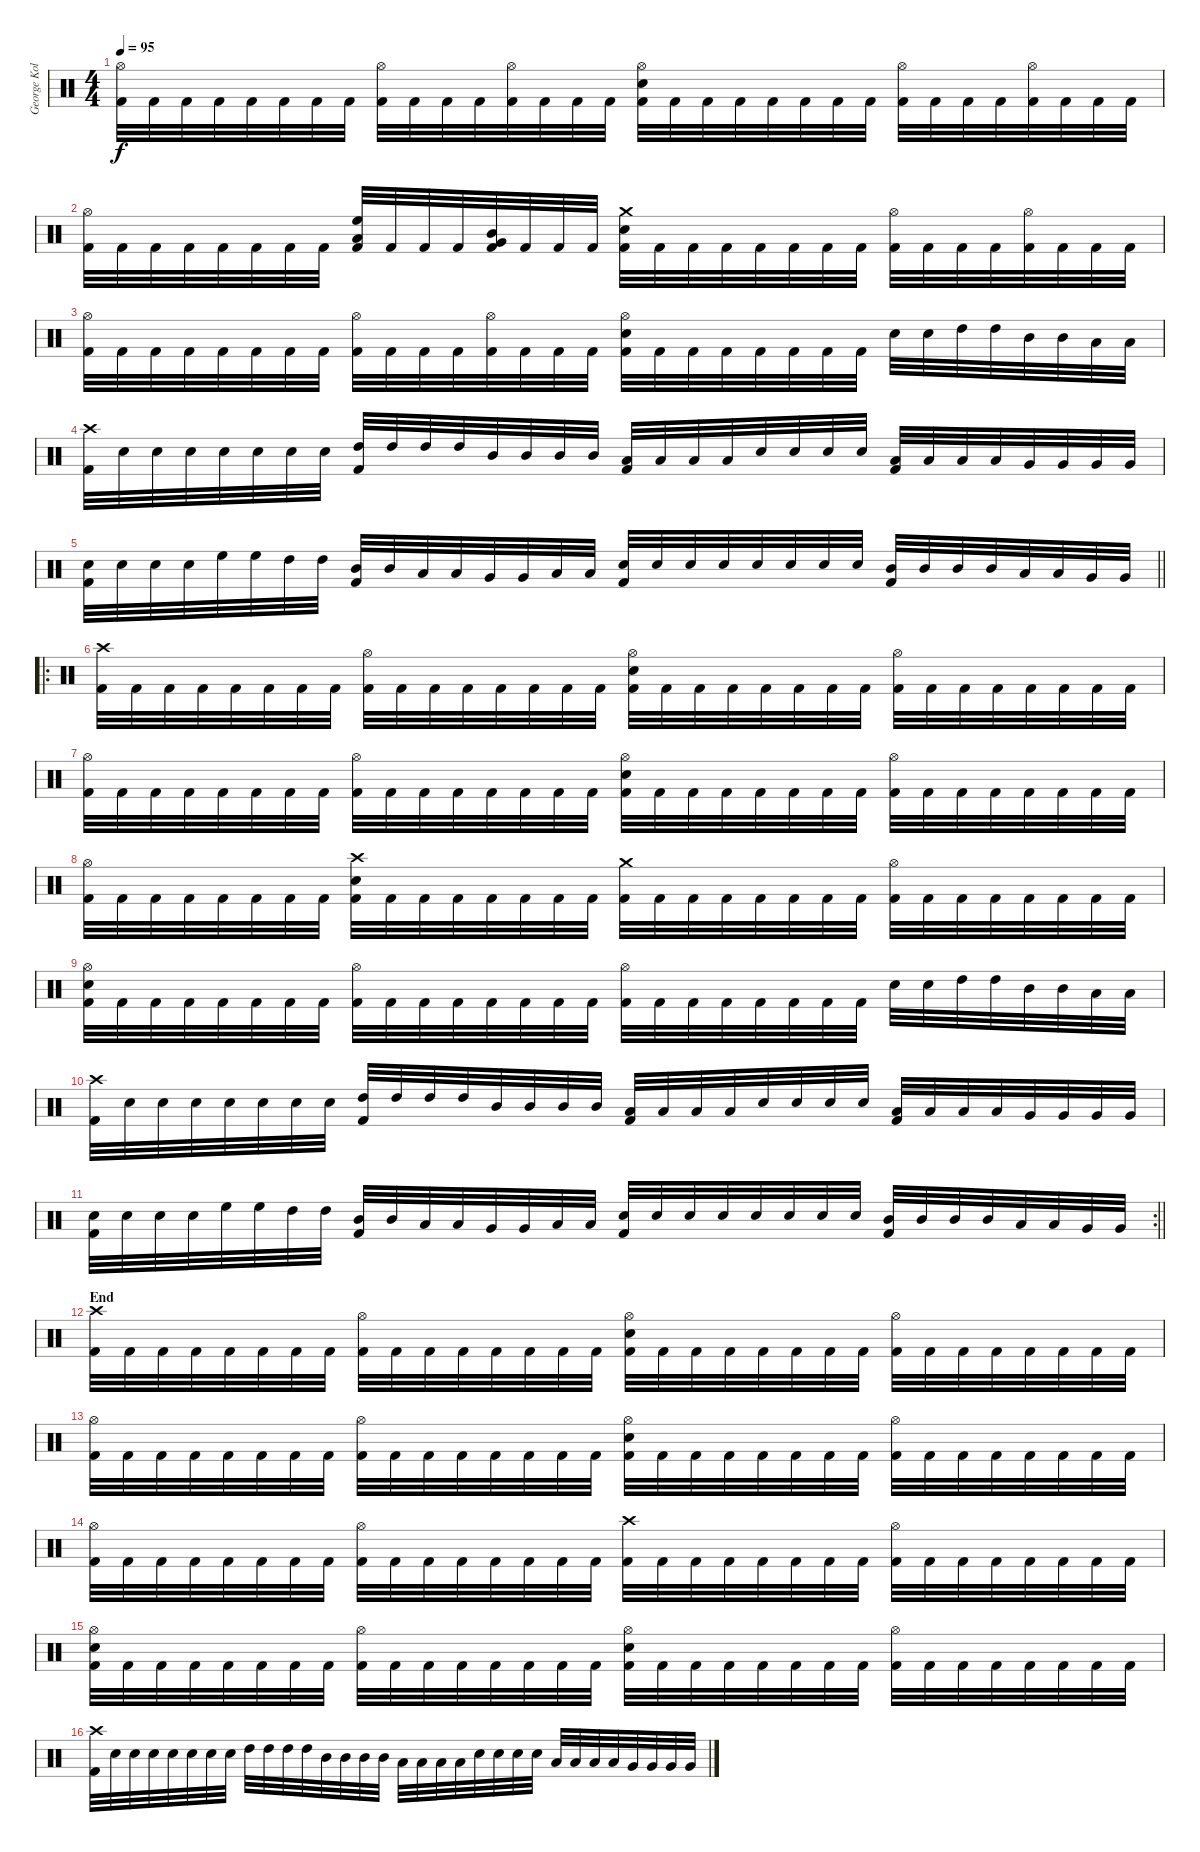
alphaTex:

\track ("George Kollias" "George Kol") {instrument percussion}
\staff {score}
\articulation defaults
\ts (4 4)
\tempo 95
\clef neutral
\ks c
("Hi-Hat (open)" "Kick (hit) 2").32{dy f} "Kick (hit) 2".32 "Kick (hit) 2".32 "Kick (hit) 2".32 "Kick (hit) 2".32 "Kick (hit) 2".32 "Kick (hit) 2".32 "Kick (hit) 2".32 ("Hi-Hat (open)" "Kick (hit) 2").32 "Kick (hit) 2".32 "Kick (hit) 2".32 "Kick (hit) 2".32 ("Hi-Hat (open)" "Kick (hit) 2").32 "Kick (hit) 2".32 "Kick (hit) 2".32 "Kick (hit) 2".32 ("Hi-Hat (open)" "Electric Snare (hit)" "Kick (hit) 2").32 "Kick (hit) 2".32 "Kick (hit) 2".32 "Kick (hit) 2".32 "Kick (hit) 2".32 "Kick (hit) 2".32 "Kick (hit) 2".32 "Kick (hit) 2".32 ("Hi-Hat (open)" "Kick (hit) 2").32 "Kick (hit) 2".32 "Kick (hit) 2".32 "Kick (hit) 2".32 ("Hi-Hat (open)" "Kick (hit) 2").32 "Kick (hit) 2".32 "Kick (hit) 2".32 "Kick (hit) 2".32 |
("Hi-Hat (open)" "Kick (hit) 2").32 "Kick (hit) 2".32 "Kick (hit) 2".32 "Kick (hit) 2".32 "Kick (hit) 2".32 "Kick (hit) 2".32 "Kick (hit) 2".32 "Kick (hit) 2".32 ("High Floor Tom (hit)" "Low Tom (hit)" "Kick (hit) 2").32 "Kick (hit) 2".32 "Kick (hit) 2".32 "Kick (hit) 2".32 ("Mid Tom (hit)" "Very Low Tom (hit)" "Kick (hit) 2").32 "Kick (hit) 2".32 "Kick (hit) 2".32 "Kick (hit) 2".32 ("Crash medium (hit)" "Electric Snare (hit)" "Kick (hit) 2").32 "Kick (hit) 2".32 "Kick (hit) 2".32 "Kick (hit) 2".32 "Kick (hit) 2".32 "Kick (hit) 2".32 "Kick (hit) 2".32 "Kick (hit) 2".32 ("Hi-Hat (open)" "Kick (hit) 2").32 "Kick (hit) 2".32 "Kick (hit) 2".32 "Kick (hit) 2".32 ("Hi-Hat (open)" "Kick (hit) 2").32 "Kick (hit) 2".32 "Kick (hit) 2".32 "Kick (hit) 2".32 |
("Hi-Hat (open)" "Kick (hit) 2").32 "Kick (hit) 2".32 "Kick (hit) 2".32 "Kick (hit) 2".32 "Kick (hit) 2".32 "Kick (hit) 2".32 "Kick (hit) 2".32 "Kick (hit) 2".32 ("Hi-Hat (open)" "Kick (hit) 2").32 "Kick (hit) 2".32 "Kick (hit) 2".32 "Kick (hit) 2".32 ("Hi-Hat (open)" "Kick (hit) 2").32 "Kick (hit) 2".32 "Kick (hit) 2".32 "Kick (hit) 2".32 ("Hi-Hat (open)" "Electric Snare (hit)" "Kick (hit) 2").32 "Kick (hit) 2".32 "Kick (hit) 2".32 "Kick (hit) 2".32 "Kick (hit) 2".32 "Kick (hit) 2".32 "Kick (hit) 2".32 "Kick (hit) 2".32 "Electric Snare (hit)".32 "Electric Snare (hit)".32 "High Tom (hit)".32 "High Tom (hit)".32 "Mid Tom (hit)".32 "Mid Tom (hit)".32 "Low Tom (hit)".32 "Low Tom (hit)".32 |
("Crash high (hit)" "Kick (hit) 2").32 "Electric Snare (hit)".32 "Electric Snare (hit)".32 "Electric Snare (hit)".32 "Electric Snare (hit)".32 "Electric Snare (hit)".32 "Electric Snare (hit)".32 "Electric Snare (hit)".32 ("High Tom (hit)" "Kick (hit) 2").32 "High Tom (hit)".32 "High Tom (hit)".32 "High Tom (hit)".32 "Mid Tom (hit)".32 "Mid Tom (hit)".32 "Mid Tom (hit)".32 "Mid Tom (hit)".32 ("Low Tom (hit)" "Kick (hit) 2").32 "Low Tom (hit)".32 "Low Tom (hit)".32 "Low Tom (hit)".32 "Electric Snare (hit)".32 "Electric Snare (hit)".32 "Electric Snare (hit)".32 "Electric Snare (hit)".32 ("Low Tom (hit)" "Kick (hit) 2").32 "Low Tom (hit)".32 "Low Tom (hit)".32 "Low Tom (hit)".32 "Very Low Tom (hit)".32 "Very Low Tom (hit)".32 "Very Low Tom (hit)".32 "Very Low Tom (hit)".32 |
\barLineRight lightlight
("Electric Snare (hit)" "Kick (hit) 2").32 "Electric Snare (hit)".32 "Electric Snare (hit)".32 "Electric Snare (hit)".32 "High Floor Tom (hit)".32 "High Floor Tom (hit)".32 "High Tom (hit)".32 "High Tom (hit)".32 ("Mid Tom (hit)" "Kick (hit) 2").32 "Mid Tom (hit)".32 "Low Tom (hit)".32 "Low Tom (hit)".32 "Very Low Tom (hit)".32 "Very Low Tom (hit)".32 "Low Floor Tom (hit)".32 "Low Floor Tom (hit)".32 ("Electric Snare (hit)" "Kick (hit) 2").32 "Electric Snare (hit)".32 "Electric Snare (hit)".32 "Electric Snare (hit)".32 "Electric Snare (hit)".32 "Electric Snare (hit)".32 "Electric Snare (hit)".32 "Electric Snare (hit)".32 ("Mid Tom (hit)" "Kick (hit) 2").32 "Mid Tom (hit)".32 "Mid Tom (hit)".32 "Mid Tom (hit)".32 "Low Tom (hit)".32 "Low Tom (hit)".32 "Very Low Tom (hit)".32 "Very Low Tom (hit)".32 |
\ro
("Crash high (hit)" "Kick (hit) 2").32 "Kick (hit) 2".32 "Kick (hit) 2".32 "Kick (hit) 2".32 "Kick (hit) 2".32 "Kick (hit) 2".32 "Kick (hit) 2".32 "Kick (hit) 2".32 ("Hi-Hat (open)" "Kick (hit) 2").32 "Kick (hit) 2".32 "Kick (hit) 2".32 "Kick (hit) 2".32 "Kick (hit) 2".32 "Kick (hit) 2".32 "Kick (hit) 2".32 "Kick (hit) 2".32 ("Hi-Hat (open)" "Electric Snare (hit)" "Kick (hit) 2").32 "Kick (hit) 2".32 "Kick (hit) 2".32 "Kick (hit) 2".32 "Kick (hit) 2".32 "Kick (hit) 2".32 "Kick (hit) 2".32 "Kick (hit) 2".32 ("Hi-Hat (open)" "Kick (hit) 2").32 "Kick (hit) 2".32 "Kick (hit) 2".32 "Kick (hit) 2".32 "Kick (hit) 2".32 "Kick (hit) 2".32 "Kick (hit) 2".32 "Kick (hit) 2".32 |
("Hi-Hat (open)" "Kick (hit) 2").32 "Kick (hit) 2".32 "Kick (hit) 2".32 "Kick (hit) 2".32 "Kick (hit) 2".32 "Kick (hit) 2".32 "Kick (hit) 2".32 "Kick (hit) 2".32 ("Hi-Hat (open)" "Kick (hit) 2").32 "Kick (hit) 2".32 "Kick (hit) 2".32 "Kick (hit) 2".32 "Kick (hit) 2".32 "Kick (hit) 2".32 "Kick (hit) 2".32 "Kick (hit) 2".32 ("Hi-Hat (open)" "Electric Snare (hit)" "Kick (hit) 2").32 "Kick (hit) 2".32 "Kick (hit) 2".32 "Kick (hit) 2".32 "Kick (hit) 2".32 "Kick (hit) 2".32 "Kick (hit) 2".32 "Kick (hit) 2".32 ("Hi-Hat (open)" "Kick (hit) 2").32 "Kick (hit) 2".32 "Kick (hit) 2".32 "Kick (hit) 2".32 "Kick (hit) 2".32 "Kick (hit) 2".32 "Kick (hit) 2".32 "Kick (hit) 2".32 |
("Hi-Hat (open)" "Kick (hit) 2").32 "Kick (hit) 2".32 "Kick (hit) 2".32 "Kick (hit) 2".32 "Kick (hit) 2".32 "Kick (hit) 2".32 "Kick (hit) 2".32 "Kick (hit) 2".32 ("Crash high (hit)" "Electric Snare (hit)" "Kick (hit) 2").32 "Kick (hit) 2".32 "Kick (hit) 2".32 "Kick (hit) 2".32 "Kick (hit) 2".32 "Kick (hit) 2".32 "Kick (hit) 2".32 "Kick (hit) 2".32 ("Crash medium (hit)" "Kick (hit) 2").32 "Kick (hit) 2".32 "Kick (hit) 2".32 "Kick (hit) 2".32 "Kick (hit) 2".32 "Kick (hit) 2".32 "Kick (hit) 2".32 "Kick (hit) 2".32 ("Hi-Hat (open)" "Kick (hit) 2").32 "Kick (hit) 2".32 "Kick (hit) 2".32 "Kick (hit) 2".32 "Kick (hit) 2".32 "Kick (hit) 2".32 "Kick (hit) 2".32 "Kick (hit) 2".32 |
("Hi-Hat (open)" "Electric Snare (hit)" "Kick (hit) 2").32 "Kick (hit) 2".32 "Kick (hit) 2".32 "Kick (hit) 2".32 "Kick (hit) 2".32 "Kick (hit) 2".32 "Kick (hit) 2".32 "Kick (hit) 2".32 ("Hi-Hat (open)" "Kick (hit) 2").32 "Kick (hit) 2".32 "Kick (hit) 2".32 "Kick (hit) 2".32 "Kick (hit) 2".32 "Kick (hit) 2".32 "Kick (hit) 2".32 "Kick (hit) 2".32 ("Hi-Hat (open)" "Kick (hit) 2").32 "Kick (hit) 2".32 "Kick (hit) 2".32 "Kick (hit) 2".32 "Kick (hit) 2".32 "Kick (hit) 2".32 "Kick (hit) 2".32 "Kick (hit) 2".32 "Electric Snare (hit)".32 "Electric Snare (hit)".32 "High Tom (hit)".32 "High Tom (hit)".32 "Mid Tom (hit)".32 "Mid Tom (hit)".32 "Low Tom (hit)".32 "Low Tom (hit)".32 |
("Crash high (hit)" "Kick (hit) 2").32 "Electric Snare (hit)".32 "Electric Snare (hit)".32 "Electric Snare (hit)".32 "Electric Snare (hit)".32 "Electric Snare (hit)".32 "Electric Snare (hit)".32 "Electric Snare (hit)".32 ("High Tom (hit)" "Kick (hit) 2").32 "High Tom (hit)".32 "High Tom (hit)".32 "High Tom (hit)".32 "Mid Tom (hit)".32 "Mid Tom (hit)".32 "Mid Tom (hit)".32 "Mid Tom (hit)".32 ("Low Tom (hit)" "Kick (hit) 2").32 "Low Tom (hit)".32 "Low Tom (hit)".32 "Low Tom (hit)".32 "Electric Snare (hit)".32 "Electric Snare (hit)".32 "Electric Snare (hit)".32 "Electric Snare (hit)".32 ("Low Tom (hit)" "Kick (hit) 2").32 "Low Tom (hit)".32 "Low Tom (hit)".32 "Low Tom (hit)".32 "Very Low Tom (hit)".32 "Very Low Tom (hit)".32 "Very Low Tom (hit)".32 "Very Low Tom (hit)".32 |
\rc 2
\barLineRight lightlight
("Electric Snare (hit)" "Kick (hit) 2").32 "Electric Snare (hit)".32 "Electric Snare (hit)".32 "Electric Snare (hit)".32 "High Floor Tom (hit)".32 "High Floor Tom (hit)".32 "High Tom (hit)".32 "High Tom (hit)".32 ("Mid Tom (hit)" "Kick (hit) 2").32 "Mid Tom (hit)".32 "Low Tom (hit)".32 "Low Tom (hit)".32 "Very Low Tom (hit)".32 "Very Low Tom (hit)".32 "Low Floor Tom (hit)".32 "Low Floor Tom (hit)".32 ("Electric Snare (hit)" "Kick (hit) 2").32 "Electric Snare (hit)".32 "Electric Snare (hit)".32 "Electric Snare (hit)".32 "Electric Snare (hit)".32 "Electric Snare (hit)".32 "Electric Snare (hit)".32 "Electric Snare (hit)".32 ("Mid Tom (hit)" "Kick (hit) 2").32 "Mid Tom (hit)".32 "Mid Tom (hit)".32 "Mid Tom (hit)".32 "Low Tom (hit)".32 "Low Tom (hit)".32 "Very Low Tom (hit)".32 "Very Low Tom (hit)".32 |
\section ("" "End")
("Crash high (hit)" "Kick (hit) 2").32 "Kick (hit) 2".32 "Kick (hit) 2".32 "Kick (hit) 2".32 "Kick (hit) 2".32 "Kick (hit) 2".32 "Kick (hit) 2".32 "Kick (hit) 2".32 ("Hi-Hat (open)" "Kick (hit) 2").32 "Kick (hit) 2".32 "Kick (hit) 2".32 "Kick (hit) 2".32 "Kick (hit) 2".32 "Kick (hit) 2".32 "Kick (hit) 2".32 "Kick (hit) 2".32 ("Hi-Hat (open)" "Electric Snare (hit)" "Kick (hit) 2").32 "Kick (hit) 2".32 "Kick (hit) 2".32 "Kick (hit) 2".32 "Kick (hit) 2".32 "Kick (hit) 2".32 "Kick (hit) 2".32 "Kick (hit) 2".32 ("Hi-Hat (open)" "Kick (hit) 2").32 "Kick (hit) 2".32 "Kick (hit) 2".32 "Kick (hit) 2".32 "Kick (hit) 2".32 "Kick (hit) 2".32 "Kick (hit) 2".32 "Kick (hit) 2".32 |
("Hi-Hat (open)" "Kick (hit) 2").32 "Kick (hit) 2".32 "Kick (hit) 2".32 "Kick (hit) 2".32 "Kick (hit) 2".32 "Kick (hit) 2".32 "Kick (hit) 2".32 "Kick (hit) 2".32 ("Hi-Hat (open)" "Kick (hit) 2").32 "Kick (hit) 2".32 "Kick (hit) 2".32 "Kick (hit) 2".32 "Kick (hit) 2".32 "Kick (hit) 2".32 "Kick (hit) 2".32 "Kick (hit) 2".32 ("Hi-Hat (open)" "Electric Snare (hit)" "Kick (hit) 2").32 "Kick (hit) 2".32 "Kick (hit) 2".32 "Kick (hit) 2".32 "Kick (hit) 2".32 "Kick (hit) 2".32 "Kick (hit) 2".32 "Kick (hit) 2".32 ("Hi-Hat (open)" "Kick (hit) 2").32 "Kick (hit) 2".32 "Kick (hit) 2".32 "Kick (hit) 2".32 "Kick (hit) 2".32 "Kick (hit) 2".32 "Kick (hit) 2".32 "Kick (hit) 2".32 |
("Hi-Hat (open)" "Kick (hit) 2").32 "Kick (hit) 2".32 "Kick (hit) 2".32 "Kick (hit) 2".32 "Kick (hit) 2".32 "Kick (hit) 2".32 "Kick (hit) 2".32 "Kick (hit) 2".32 ("Hi-Hat (open)" "Kick (hit) 2").32 "Kick (hit) 2".32 "Kick (hit) 2".32 "Kick (hit) 2".32 "Kick (hit) 2".32 "Kick (hit) 2".32 "Kick (hit) 2".32 "Kick (hit) 2".32 ("Crash high (hit)" "Kick (hit) 2").32 "Kick (hit) 2".32 "Kick (hit) 2".32 "Kick (hit) 2".32 "Kick (hit) 2".32 "Kick (hit) 2".32 "Kick (hit) 2".32 "Kick (hit) 2".32 ("Hi-Hat (open)" "Kick (hit) 2").32 "Kick (hit) 2".32 "Kick (hit) 2".32 "Kick (hit) 2".32 "Kick (hit) 2".32 "Kick (hit) 2".32 "Kick (hit) 2".32 "Kick (hit) 2".32 |
("Hi-Hat (open)" "Electric Snare (hit)" "Kick (hit) 2").32 "Kick (hit) 2".32 "Kick (hit) 2".32 "Kick (hit) 2".32 "Kick (hit) 2".32 "Kick (hit) 2".32 "Kick (hit) 2".32 "Kick (hit) 2".32 ("Hi-Hat (open)" "Kick (hit) 2").32 "Kick (hit) 2".32 "Kick (hit) 2".32 "Kick (hit) 2".32 "Kick (hit) 2".32 "Kick (hit) 2".32 "Kick (hit) 2".32 "Kick (hit) 2".32 ("Hi-Hat (open)" "Electric Snare (hit)" "Kick (hit) 2").32 "Kick (hit) 2".32 "Kick (hit) 2".32 "Kick (hit) 2".32 "Kick (hit) 2".32 "Kick (hit) 2".32 "Kick (hit) 2".32 "Kick (hit) 2".32 ("Hi-Hat (open)" "Kick (hit) 2").32 "Kick (hit) 2".32 "Kick (hit) 2".32 "Kick (hit) 2".32 "Kick (hit) 2".32 "Kick (hit) 2".32 "Kick (hit) 2".32 "Kick (hit) 2".32 |
("Crash high (hit)" "Kick (hit) 2").32 "Electric Snare (hit)".32 "Electric Snare (hit)".32 "Electric Snare (hit)".32 "Electric Snare (hit)".32 "Electric Snare (hit)".32 "Electric Snare (hit)".32 "Electric Snare (hit)".32 "High Tom (hit)".32 "High Tom (hit)".32 "High Tom (hit)".32 "High Tom (hit)".32 "Mid Tom (hit)".32 "Mid Tom (hit)".32 "Mid Tom (hit)".32 "Mid Tom (hit)".32 "Low Tom (hit)".32 "Low Tom (hit)".32 "Low Tom (hit)".32 "Low Tom (hit)".32 "Electric Snare (hit)".32 "Electric Snare (hit)".32 "Electric Snare (hit)".32 "Electric Snare (hit)".32 "Low Tom (hit)".32 "Low Tom (hit)".32 "Low Tom (hit)".32 "Low Tom (hit)".32 "Very Low Tom (hit)".32 "Very Low Tom (hit)".32 "Very Low Tom (hit)".32 "Very Low Tom (hit)".32
